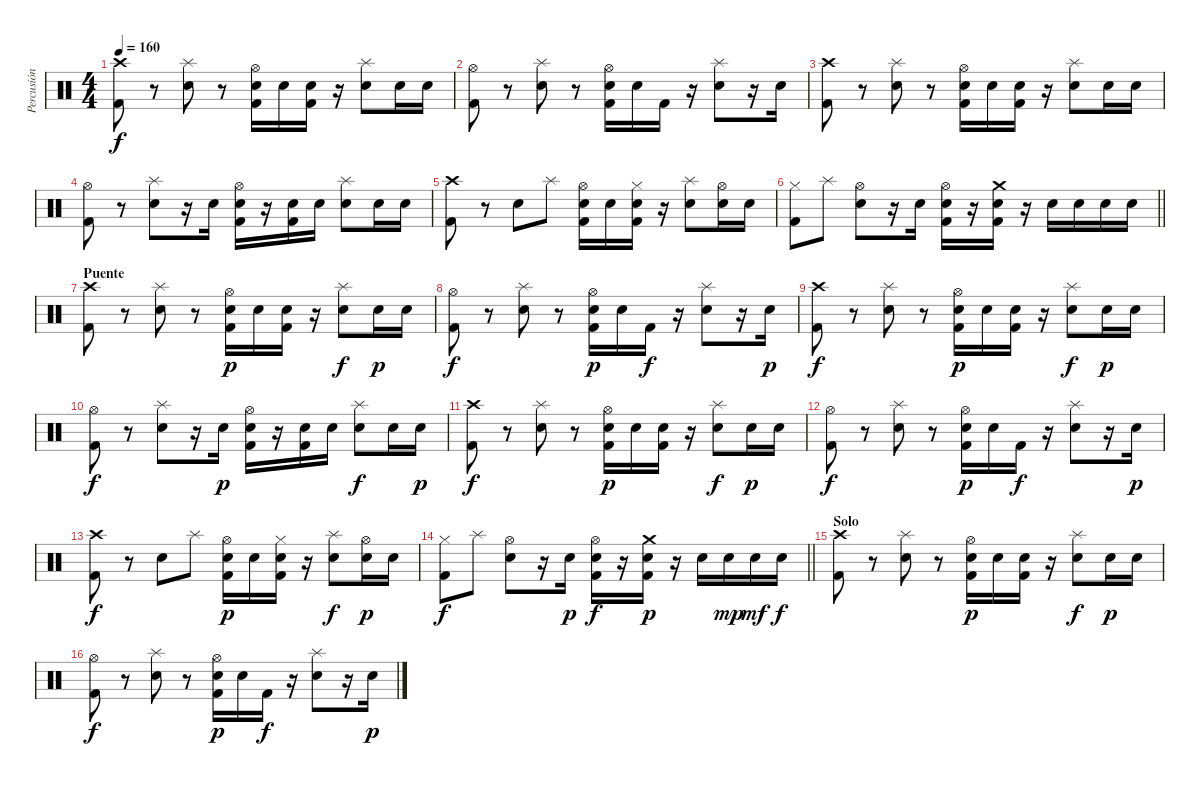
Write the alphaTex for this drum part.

\track ("Percusión" "Percusión") {instrument percussion}
\staff {score}
\articulation defaults
\ts (4 4)
\tempo 160
\clef neutral
\ks c
("Crash high (hit)" "Kick (hit) 2").8{dy f} r.8 ("Splash (hit)" "Electric Snare (hit)").8 r.8 ("Hi-Hat (open)" "Electric Snare (hit)" "Kick (hit) 2").16 "Electric Snare (hit)".16 ("Electric Snare (hit)" "Kick (hit) 2").16 r.16 ("Splash (hit)" "Electric Snare (hit)").8 "Electric Snare (hit)".16 "Electric Snare (hit)".16 |
("Hi-Hat (open)" "Kick (hit) 2").8 r.8 ("Splash (hit)" "Electric Snare (hit)").8 r.8 ("Hi-Hat (open)" "Electric Snare (hit)" "Kick (hit) 2").16 "Electric Snare (hit)".16 "Kick (hit) 2".16 r.16 ("Splash (hit)" "Electric Snare (hit)").8 r.16 "Electric Snare (hit)".16 |
("Crash high (hit)" "Kick (hit) 2").8 r.8 ("Splash (hit)" "Electric Snare (hit)").8 r.8 ("Hi-Hat (open)" "Electric Snare (hit)" "Kick (hit) 2").16 "Electric Snare (hit)".16 ("Electric Snare (hit)" "Kick (hit) 2").16 r.16 ("Splash (hit)" "Electric Snare (hit)").8 "Electric Snare (hit)".16 "Electric Snare (hit)".16 |
("Hi-Hat (open)" "Kick (hit) 2").8 r.8 ("Splash (hit)" "Electric Snare (hit)").8 r.16 "Electric Snare (hit)".16 ("Hi-Hat (open)" "Electric Snare (hit)" "Kick (hit) 2").16 r.16 ("Electric Snare (hit)" "Kick (hit) 2").16 "Electric Snare (hit)".16 ("Splash (hit)" "Electric Snare (hit)").8 "Electric Snare (hit)".16 "Electric Snare (hit)".16 |
("Crash high (hit)" "Kick (hit) 2").8 r.8 "Electric Snare (hit)".8 "Splash (hit)".8 ("Hi-Hat (open)" "Electric Snare (hit)" "Kick (hit) 2").16 "Electric Snare (hit)".16 ("Hi-Hat (closed)" "Electric Snare (hit)" "Kick (hit) 2").16 r.16 ("Splash (hit)" "Electric Snare (hit)").8 ("Hi-Hat (open)" "Electric Snare (hit)").16 "Electric Snare (hit)".16 |
\barLineRight lightlight
("Hi-Hat (closed)" "Kick (hit) 2").8 "Splash (hit)".8 ("Hi-Hat (open)" "Electric Snare (hit)").8 r.16 "Electric Snare (hit)".16 ("Hi-Hat (open)" "Electric Snare (hit)" "Kick (hit) 2").16 r.16 ("Crash medium (hit)" "Electric Snare (hit)" "Kick (hit) 2").16 r.16 "Electric Snare (hit)".16 "Electric Snare (hit)".16 "Electric Snare (hit)".16 "Electric Snare (hit)".16 |
\section ("" "Puente")
("Crash high (hit)" "Kick (hit) 2").8 r.8 ("Splash (hit)" "Electric Snare (hit)").8 r.8 ("Hi-Hat (open)" "Electric Snare (hit)" "Kick (hit) 2").16{dy p} "Electric Snare (hit)".16 ("Electric Snare (hit)" "Kick (hit) 2").16 r.16 ("Splash (hit)" "Electric Snare (hit)").8{dy f} "Electric Snare (hit)".16{dy p} "Electric Snare (hit)".16 |
("Hi-Hat (open)" "Kick (hit) 2").8{dy f} r.8 ("Splash (hit)" "Electric Snare (hit)").8 r.8 ("Hi-Hat (open)" "Electric Snare (hit)" "Kick (hit) 2").16{dy p} "Electric Snare (hit)".16 "Kick (hit) 2".16{dy f} r.16 ("Splash (hit)" "Electric Snare (hit)").8 r.16 "Electric Snare (hit)".16{dy p} |
("Crash high (hit)" "Kick (hit) 2").8{dy f} r.8 ("Splash (hit)" "Electric Snare (hit)").8 r.8 ("Hi-Hat (open)" "Electric Snare (hit)" "Kick (hit) 2").16{dy p} "Electric Snare (hit)".16 ("Electric Snare (hit)" "Kick (hit) 2").16 r.16 ("Splash (hit)" "Electric Snare (hit)").8{dy f} "Electric Snare (hit)".16{dy p} "Electric Snare (hit)".16 |
("Hi-Hat (open)" "Kick (hit) 2").8{dy f} r.8 ("Splash (hit)" "Electric Snare (hit)").8 r.16 "Electric Snare (hit)".16{dy p} ("Hi-Hat (open)" "Electric Snare (hit)" "Kick (hit) 2").16 r.16 ("Electric Snare (hit)" "Kick (hit) 2").16 "Electric Snare (hit)".16 ("Splash (hit)" "Electric Snare (hit)").8{dy f} "Electric Snare (hit)".16 "Electric Snare (hit)".16{dy p} |
("Crash high (hit)" "Kick (hit) 2").8{dy f} r.8 ("Splash (hit)" "Electric Snare (hit)").8 r.8 ("Hi-Hat (open)" "Electric Snare (hit)" "Kick (hit) 2").16{dy p} "Electric Snare (hit)".16 ("Electric Snare (hit)" "Kick (hit) 2").16 r.16 ("Splash (hit)" "Electric Snare (hit)").8{dy f} "Electric Snare (hit)".16{dy p} "Electric Snare (hit)".16 |
("Hi-Hat (open)" "Kick (hit) 2").8{dy f} r.8 ("Splash (hit)" "Electric Snare (hit)").8 r.8 ("Hi-Hat (open)" "Electric Snare (hit)" "Kick (hit) 2").16{dy p} "Electric Snare (hit)".16 "Kick (hit) 2".16{dy f} r.16 ("Splash (hit)" "Electric Snare (hit)").8 r.16 "Electric Snare (hit)".16{dy p} |
("Crash high (hit)" "Kick (hit) 2").8{dy f} r.8 "Electric Snare (hit)".8 "Splash (hit)".8 ("Hi-Hat (open)" "Electric Snare (hit)" "Kick (hit) 2").16{dy p} "Electric Snare (hit)".16 ("Hi-Hat (closed)" "Electric Snare (hit)" "Kick (hit) 2").16 r.16 ("Splash (hit)" "Electric Snare (hit)").8{dy f} ("Hi-Hat (open)" "Electric Snare (hit)").16{dy p} "Electric Snare (hit)".16 |
\barLineRight lightlight
("Hi-Hat (closed)" "Kick (hit) 2").8{dy f} "Splash (hit)".8 ("Hi-Hat (open)" "Electric Snare (hit)").8 r.16 "Electric Snare (hit)".16{dy p} ("Hi-Hat (open)" "Electric Snare (hit)" "Kick (hit) 2").16{dy f} r.16 ("Crash medium (hit)" "Electric Snare (hit)" "Kick (hit) 2").16{dy p} r.16 "Electric Snare (hit)".16 "Electric Snare (hit)".16{dy mp} "Electric Snare (hit)".16{dy mf} "Electric Snare (hit)".16{dy f} |
\section ("" "Solo")
("Crash high (hit)" "Kick (hit) 2").8 r.8 ("Splash (hit)" "Electric Snare (hit)").8 r.8 ("Hi-Hat (open)" "Electric Snare (hit)" "Kick (hit) 2").16{dy p} "Electric Snare (hit)".16 ("Electric Snare (hit)" "Kick (hit) 2").16 r.16 ("Splash (hit)" "Electric Snare (hit)").8{dy f} "Electric Snare (hit)".16{dy p} "Electric Snare (hit)".16 |
("Hi-Hat (open)" "Kick (hit) 2").8{dy f} r.8 ("Splash (hit)" "Electric Snare (hit)").8 r.8 ("Hi-Hat (open)" "Electric Snare (hit)" "Kick (hit) 2").16{dy p} "Electric Snare (hit)".16 "Kick (hit) 2".16{dy f} r.16 ("Splash (hit)" "Electric Snare (hit)").8 r.16 "Electric Snare (hit)".16{dy p}
